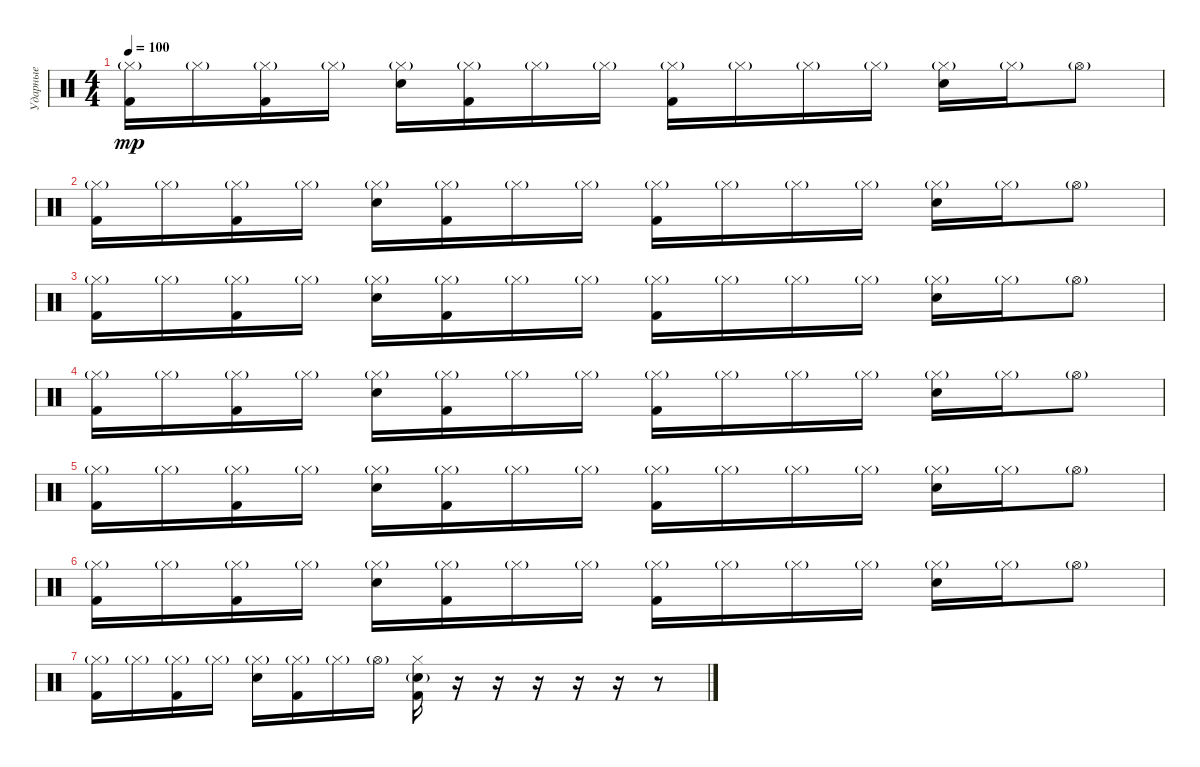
\track ("Ударные" "Ударные") {instrument percussion}
\staff {score}
\articulation defaults
\ts (4 4)
\tempo 100
\clef neutral
\ks c
("Hi-Hat (closed)"{g} "Kick (hit) 2").16{dy mp} "Hi-Hat (closed)"{g}.16 ("Hi-Hat (closed)"{g} "Kick (hit) 2").16 "Hi-Hat (closed)"{g}.16 ("Hi-Hat (closed)"{g} "Snare (hit) 2").16 ("Hi-Hat (closed)"{g} "Kick (hit) 2").16 "Hi-Hat (closed)"{g}.16 "Hi-Hat (closed)"{g}.16 ("Hi-Hat (closed)"{g} "Kick (hit) 2").16 "Hi-Hat (closed)"{g}.16 "Hi-Hat (closed)"{g}.16 "Hi-Hat (closed)"{g}.16 ("Hi-Hat (closed)"{g} "Snare (hit) 2").16 "Hi-Hat (closed)"{g}.16 "Hi-Hat (open)"{g}.8 |
("Hi-Hat (closed)"{g} "Kick (hit) 2").16 "Hi-Hat (closed)"{g}.16 ("Hi-Hat (closed)"{g} "Kick (hit) 2").16 "Hi-Hat (closed)"{g}.16 ("Hi-Hat (closed)"{g} "Snare (hit) 2").16 ("Hi-Hat (closed)"{g} "Kick (hit) 2").16 "Hi-Hat (closed)"{g}.16 "Hi-Hat (closed)"{g}.16 ("Hi-Hat (closed)"{g} "Kick (hit) 2").16 "Hi-Hat (closed)"{g}.16 "Hi-Hat (closed)"{g}.16 "Hi-Hat (closed)"{g}.16 ("Hi-Hat (closed)"{g} "Snare (hit) 2").16 "Hi-Hat (closed)"{g}.16 "Hi-Hat (open)"{g}.8 |
("Hi-Hat (closed)"{g} "Kick (hit) 2").16 "Hi-Hat (closed)"{g}.16 ("Hi-Hat (closed)"{g} "Kick (hit) 2").16 "Hi-Hat (closed)"{g}.16 ("Hi-Hat (closed)"{g} "Snare (hit) 2").16 ("Hi-Hat (closed)"{g} "Kick (hit) 2").16 "Hi-Hat (closed)"{g}.16 "Hi-Hat (closed)"{g}.16 ("Hi-Hat (closed)"{g} "Kick (hit) 2").16 "Hi-Hat (closed)"{g}.16 "Hi-Hat (closed)"{g}.16 "Hi-Hat (closed)"{g}.16 ("Hi-Hat (closed)"{g} "Snare (hit) 2").16 "Hi-Hat (closed)"{g}.16 "Hi-Hat (open)"{g}.8 |
("Hi-Hat (closed)"{g} "Kick (hit) 2").16 "Hi-Hat (closed)"{g}.16 ("Hi-Hat (closed)"{g} "Kick (hit) 2").16 "Hi-Hat (closed)"{g}.16 ("Hi-Hat (closed)"{g} "Snare (hit) 2").16 ("Hi-Hat (closed)"{g} "Kick (hit) 2").16 "Hi-Hat (closed)"{g}.16 "Hi-Hat (closed)"{g}.16 ("Hi-Hat (closed)"{g} "Kick (hit) 2").16 "Hi-Hat (closed)"{g}.16 "Hi-Hat (closed)"{g}.16 "Hi-Hat (closed)"{g}.16 ("Hi-Hat (closed)"{g} "Snare (hit) 2").16 "Hi-Hat (closed)"{g}.16 "Hi-Hat (open)"{g}.8 |
("Hi-Hat (closed)"{g} "Kick (hit) 2").16 "Hi-Hat (closed)"{g}.16 ("Hi-Hat (closed)"{g} "Kick (hit) 2").16 "Hi-Hat (closed)"{g}.16 ("Hi-Hat (closed)"{g} "Snare (hit) 2").16 ("Hi-Hat (closed)"{g} "Kick (hit) 2").16 "Hi-Hat (closed)"{g}.16 "Hi-Hat (closed)"{g}.16 ("Hi-Hat (closed)"{g} "Kick (hit) 2").16 "Hi-Hat (closed)"{g}.16 "Hi-Hat (closed)"{g}.16 "Hi-Hat (closed)"{g}.16 ("Hi-Hat (closed)"{g} "Snare (hit) 2").16 "Hi-Hat (closed)"{g}.16 "Hi-Hat (open)"{g}.8 |
("Hi-Hat (closed)"{g} "Kick (hit) 2").16 "Hi-Hat (closed)"{g}.16 ("Hi-Hat (closed)"{g} "Kick (hit) 2").16 "Hi-Hat (closed)"{g}.16 ("Hi-Hat (closed)"{g} "Snare (hit) 2").16 ("Hi-Hat (closed)"{g} "Kick (hit) 2").16 "Hi-Hat (closed)"{g}.16 "Hi-Hat (closed)"{g}.16 ("Hi-Hat (closed)"{g} "Kick (hit) 2").16 "Hi-Hat (closed)"{g}.16 "Hi-Hat (closed)"{g}.16 "Hi-Hat (closed)"{g}.16 ("Hi-Hat (closed)"{g} "Snare (hit) 2").16 "Hi-Hat (closed)"{g}.16 "Hi-Hat (open)"{g}.8 |
("Hi-Hat (closed)"{g} "Kick (hit) 2").16 "Hi-Hat (closed)"{g}.16 ("Hi-Hat (closed)"{g} "Kick (hit) 2").16 "Hi-Hat (closed)"{g}.16 ("Hi-Hat (closed)"{g} "Snare (hit) 2").16 ("Hi-Hat (closed)"{g} "Kick (hit) 2").16 "Hi-Hat (closed)"{g}.16 "Hi-Hat (open)"{g}.16 ("Snare (hit) 2"{g} "Kick (hit) 2" "Hi-Hat (closed)").16 r.16 r.16 r.16 r.16 r.16 r.8
